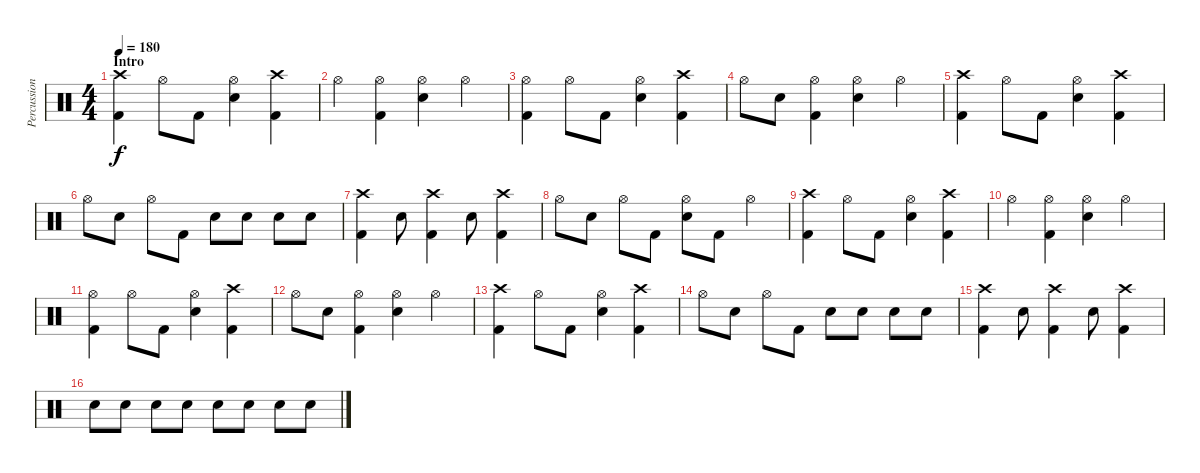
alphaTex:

\track ("Percussion" "Percussion") {instrument percussion}
\staff {score}
\articulation defaults
\ts (4 4)
\section ("" "Intro")
\tempo 180
\clef neutral
\ks c
("Crash high (hit)" "Kick (hit) 2").4{dy f} "Hi-Hat (open)".8 "Kick (hit) 2".8 ("Hi-Hat (open)" "Electric Snare (hit)").4 ("Crash high (hit)" "Kick (hit) 2").4 |
"Hi-Hat (open)".4 ("Hi-Hat (open)" "Kick (hit) 2").4 ("Hi-Hat (open)" "Electric Snare (hit)").4 "Hi-Hat (open)".4 |
("Hi-Hat (open)" "Kick (hit) 2").4 "Hi-Hat (open)".8 "Kick (hit) 2".8 ("Hi-Hat (open)" "Electric Snare (hit)").4 ("Crash high (hit)" "Kick (hit) 2").4 |
"Hi-Hat (open)".8 "Electric Snare (hit)".8 ("Hi-Hat (open)" "Kick (hit) 2").4 ("Hi-Hat (open)" "Electric Snare (hit)").4 "Hi-Hat (open)".4 |
("Crash high (hit)" "Kick (hit) 2").4 "Hi-Hat (open)".8 "Kick (hit) 2".8 ("Hi-Hat (open)" "Electric Snare (hit)").4 ("Crash high (hit)" "Kick (hit) 2").4 |
"Hi-Hat (open)".8 "Electric Snare (hit)".8 "Hi-Hat (open)".8 "Kick (hit) 2".8 "Electric Snare (hit)".8 "Electric Snare (hit)".8 "Electric Snare (hit)".8 "Electric Snare (hit)".8 |
("Crash high (hit)" "Kick (hit) 2").4 "Electric Snare (hit)".8 ("Crash high (hit)" "Kick (hit) 2").4 "Electric Snare (hit)".8 ("Crash high (hit)" "Kick (hit) 2").4 |
"Hi-Hat (open)".8 "Electric Snare (hit)".8 "Hi-Hat (open)".8 "Kick (hit) 2".8 ("Hi-Hat (open)" "Electric Snare (hit)").8 "Kick (hit) 2".8 "Hi-Hat (open)".4 |
("Crash high (hit)" "Kick (hit) 2").4 "Hi-Hat (open)".8 "Kick (hit) 2".8 ("Hi-Hat (open)" "Electric Snare (hit)").4 ("Crash high (hit)" "Kick (hit) 2").4 |
"Hi-Hat (open)".4 ("Hi-Hat (open)" "Kick (hit) 2").4 ("Hi-Hat (open)" "Electric Snare (hit)").4 "Hi-Hat (open)".4 |
("Hi-Hat (open)" "Kick (hit) 2").4 "Hi-Hat (open)".8 "Kick (hit) 2".8 ("Hi-Hat (open)" "Electric Snare (hit)").4 ("Crash high (hit)" "Kick (hit) 2").4 |
"Hi-Hat (open)".8 "Electric Snare (hit)".8 ("Hi-Hat (open)" "Kick (hit) 2").4 ("Hi-Hat (open)" "Electric Snare (hit)").4 "Hi-Hat (open)".4 |
("Crash high (hit)" "Kick (hit) 2").4 "Hi-Hat (open)".8 "Kick (hit) 2".8 ("Hi-Hat (open)" "Electric Snare (hit)").4 ("Crash high (hit)" "Kick (hit) 2").4 |
"Hi-Hat (open)".8 "Electric Snare (hit)".8 "Hi-Hat (open)".8 "Kick (hit) 2".8 "Electric Snare (hit)".8 "Electric Snare (hit)".8 "Electric Snare (hit)".8 "Electric Snare (hit)".8 |
("Crash high (hit)" "Kick (hit) 2").4 "Electric Snare (hit)".8 ("Crash high (hit)" "Kick (hit) 2").4 "Electric Snare (hit)".8 ("Crash high (hit)" "Kick (hit) 2").4 |
"Electric Snare (hit)".8 "Electric Snare (hit)".8 "Electric Snare (hit)".8 "Electric Snare (hit)".8 "Electric Snare (hit)".8 "Electric Snare (hit)".8 "Electric Snare (hit)".8 "Electric Snare (hit)".8
